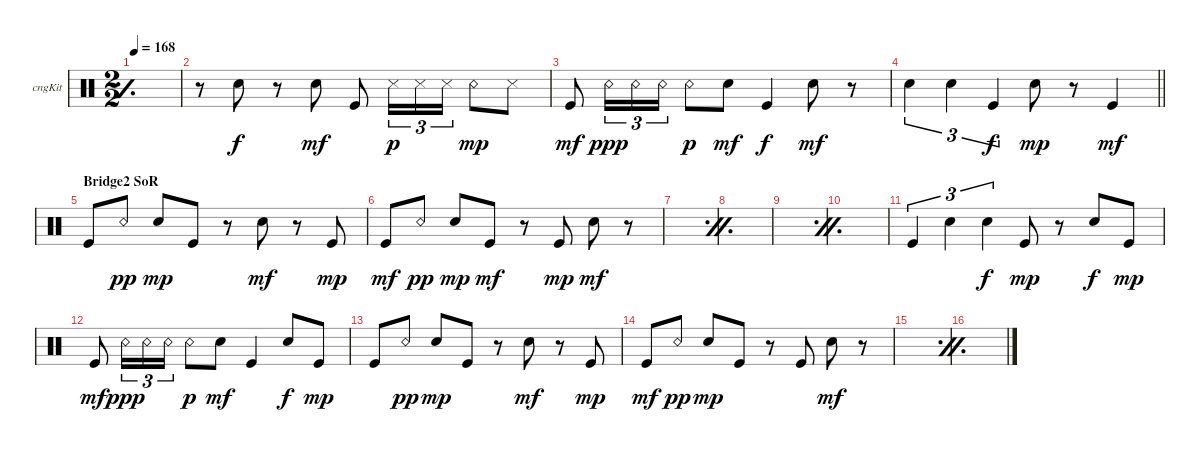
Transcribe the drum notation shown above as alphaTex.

\bracketExtendMode groupsimilarinstruments
\multiTrackTrackNamePolicy hidden
\firstSystemTrackNameOrientation horizontal
\otherSystemsTrackNameOrientation horizontal
\track ("Congas" "cngKit") {instrument percussion}
\staff {score}
\articulation defaults
\ts (2 2)
\tempo 168
\clef neutral
\simile simple
\ks c
|
r.8 "Snare (hit) 2".8 r.8 "Snare (hit) 2".8{dy mf} "Kick (hit)".8 "Snare (side stick) 3".16{tu (3 2) dy p} "Snare (side stick) 3".16{tu (3 2)} "Snare (side stick) 3".16{tu (3 2)} "Snare (rim shot)".8{dy mp} "Snare (side stick) 3".8 |
"Kick (hit)".8{dy mf} "Snare (rim shot)".16{tu (3 2) dy ppp} "Snare (rim shot)".16{tu (3 2)} "Snare (rim shot)".16{tu (3 2)} "Snare (rim shot)".8{dy p} "Snare (hit) 2".8{dy mf} "Kick (hit)".4{dy f} "Snare (hit) 2".8{dy mf} r.8 |
\barLineRight lightlight "Snare (hit) 2".4{tu (3 2)} "Snare (hit) 2".4{tu (3 2)} "Kick (hit)".4{tu (3 2) dy f} "Snare (hit) 2".8{dy mp}
r.8 "Kick (hit)".4{dy mf} |
\section ("" "Bridge2 SoR")
"Kick (hit)".8 "Snare (rim shot)".8{dy pp} "Snare (hit) 2".8{dy mp} "Kick (hit)".8 r.8 "Snare (hit) 2".8{dy mf} r.8 "Kick (hit)".8{dy mp} |
"Kick (hit)".8{dy mf} "Snare (rim shot)".8{dy pp} "Snare (hit) 2".8{dy mp} "Kick (hit)".8{dy mf} r.8 "Kick (hit)".8{dy mp} "Snare (hit) 2".8{dy mf} r.8 |
\simile firstofdouble
|
\simile secondofdouble
|
\simile firstofdouble
|
\simile secondofdouble
|
\simile none "Kick (hit)".4{tu (3 2)} "Snare (hit) 2".4{tu (3 2)} "Snare (hit) 2".4{tu (3 2) dy f} "Kick (hit)".8{dy mp}
r.8 "Snare (hit) 2".8{dy f} "Kick (hit)".8{dy mp} |
"Kick (hit)".8{dy mf} "Snare (rim shot)".16{tu (3 2) dy ppp} "Snare (rim shot)".16{tu (3 2)} "Snare (rim shot)".16{tu (3 2)} "Snare (rim shot)".8{dy p} "Snare (hit) 2".8{dy mf} "Kick (hit)".4 "Snare (hit) 2".8{dy f} "Kick (hit)".8{dy mp} |
"Kick (hit)".8 "Snare (rim shot)".8{dy pp} "Snare (hit) 2".8{dy mp} "Kick (hit)".8 r.8 "Snare (hit) 2".8{dy mf} r.8 "Kick (hit)".8{dy mp} |
"Kick (hit)".8{dy mf} "Snare (rim shot)".8{dy pp} "Snare (hit) 2".8{dy mp} "Kick (hit)".8 r.8 "Kick (hit)".8 "Snare (hit) 2".8{dy mf} r.8 |
\simile firstofdouble
|
\simile secondofdouble
